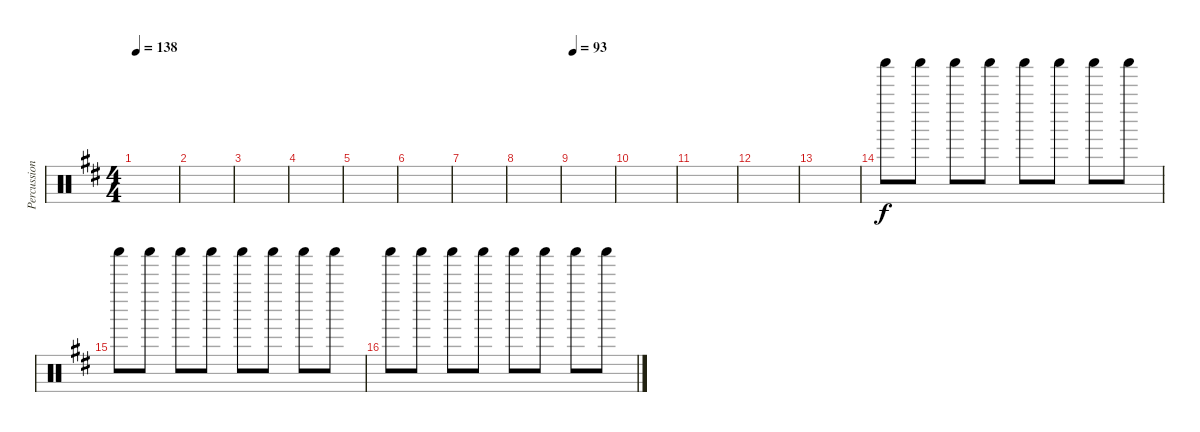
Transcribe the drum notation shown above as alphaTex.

\track ("Percussions" "Percussion") {instrument percussion}
\staff {score}
\articulation defaults
\ts (4 4)
\tempo 138
\clef neutral
\ks d
|
|
|
|
|
|
|
|
\tempo 93
|
|
|
|
|
"Shaker (hit)".8{beam Down} "Shaker (hit)".8{beam Down} "Shaker (hit)".8{beam Down} "Shaker (hit)".8{beam Down} "Shaker (hit)".8{beam Down} "Shaker (hit)".8{beam Down} "Shaker (hit)".8{beam Down} "Shaker (hit)".8{beam Down} |
"Shaker (hit)".8{beam Down} "Shaker (hit)".8{beam Down} "Shaker (hit)".8{beam Down} "Shaker (hit)".8{beam Down} "Shaker (hit)".8{beam Down} "Shaker (hit)".8{beam Down} "Shaker (hit)".8{beam Down} "Shaker (hit)".8{beam Down} |
"Shaker (hit)".8{beam Down} "Shaker (hit)".8{beam Down} "Shaker (hit)".8{beam Down} "Shaker (hit)".8{beam Down} "Shaker (hit)".8{beam Down} "Shaker (hit)".8{beam Down} "Shaker (hit)".8{beam Down} "Shaker (hit)".8{beam Down}
